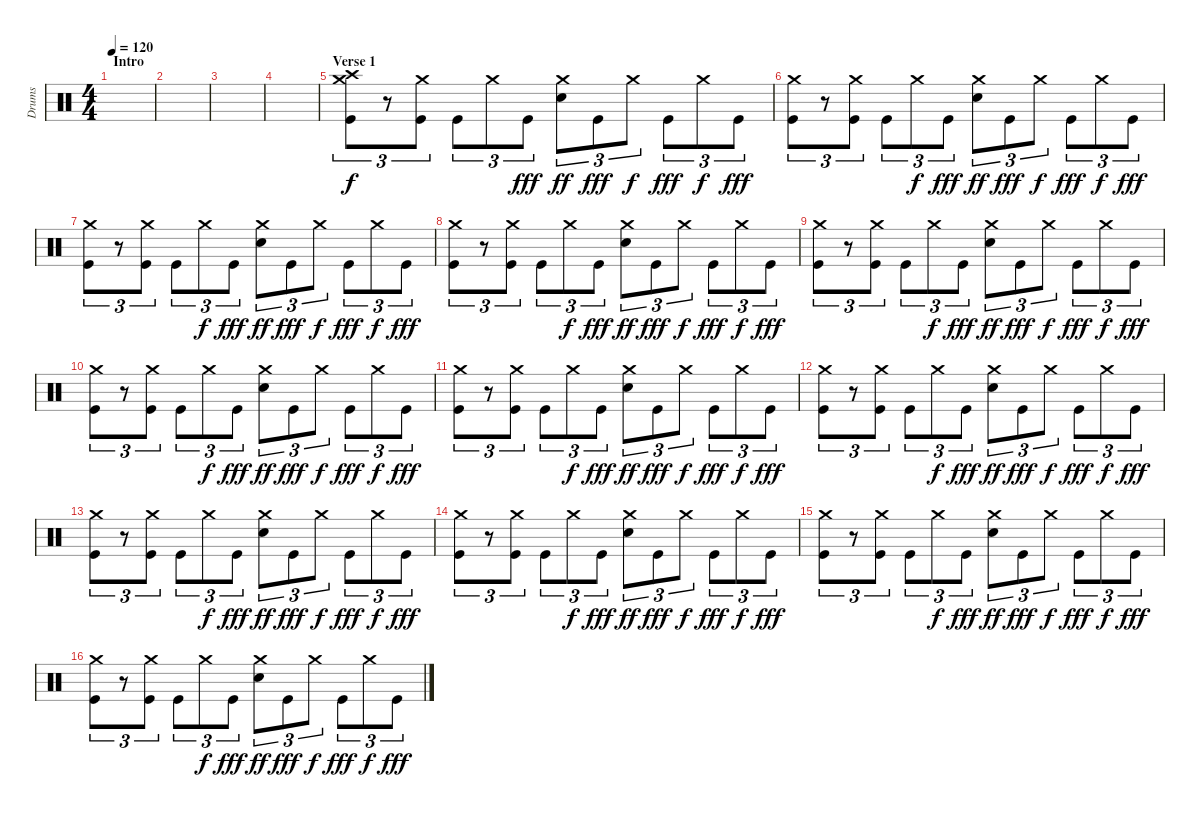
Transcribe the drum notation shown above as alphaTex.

\track ("Drums" "Drums") {instrument percussion}
\staff {score}
\articulation defaults
\ts (4 4)
\section ("" "Intro")
\tempo 120
\clef neutral
\ks c
|
|
|
|
\section ("" "Verse 1")
("Crash high (hit)" "Crash medium (hit)" "Kick (hit)").8{tu (3 2)} r.8{tu (3 2)} ("Crash medium (hit)" "Kick (hit)").8{tu (3 2)} "Kick (hit)".8{tu (3 2)} "Crash medium (hit)".8{tu (3 2) dy f} "Kick (hit)".8{tu (3 2) dy fff} ("Crash medium (hit)" "Snare (hit) 2").8{tu (3 2) dy ff} "Kick (hit)".8{tu (3 2) dy fff} "Crash medium (hit)".8{tu (3 2) dy f} "Kick (hit)".8{tu (3 2) dy fff} "Crash medium (hit)".8{tu (3 2) dy f} "Kick (hit)".8{tu (3 2) dy fff} |
("Crash medium (hit)" "Kick (hit)").8{tu (3 2)} r.8{tu (3 2)} ("Crash medium (hit)" "Kick (hit)").8{tu (3 2)} "Kick (hit)".8{tu (3 2)} "Crash medium (hit)".8{tu (3 2) dy f} "Kick (hit)".8{tu (3 2) dy fff} ("Crash medium (hit)" "Snare (hit) 2").8{tu (3 2) dy ff} "Kick (hit)".8{tu (3 2) dy fff} "Crash medium (hit)".8{tu (3 2) dy f} "Kick (hit)".8{tu (3 2) dy fff} "Crash medium (hit)".8{tu (3 2) dy f} "Kick (hit)".8{tu (3 2) dy fff} |
("Crash medium (hit)" "Kick (hit)").8{tu (3 2)} r.8{tu (3 2)} ("Crash medium (hit)" "Kick (hit)").8{tu (3 2)} "Kick (hit)".8{tu (3 2)} "Crash medium (hit)".8{tu (3 2) dy f} "Kick (hit)".8{tu (3 2) dy fff} ("Crash medium (hit)" "Snare (hit) 2").8{tu (3 2) dy ff} "Kick (hit)".8{tu (3 2) dy fff} "Crash medium (hit)".8{tu (3 2) dy f} "Kick (hit)".8{tu (3 2) dy fff} "Crash medium (hit)".8{tu (3 2) dy f} "Kick (hit)".8{tu (3 2) dy fff} |
("Crash medium (hit)" "Kick (hit)").8{tu (3 2)} r.8{tu (3 2)} ("Crash medium (hit)" "Kick (hit)").8{tu (3 2)} "Kick (hit)".8{tu (3 2)} "Crash medium (hit)".8{tu (3 2) dy f} "Kick (hit)".8{tu (3 2) dy fff} ("Crash medium (hit)" "Snare (hit) 2").8{tu (3 2) dy ff} "Kick (hit)".8{tu (3 2) dy fff} "Crash medium (hit)".8{tu (3 2) dy f} "Kick (hit)".8{tu (3 2) dy fff} "Crash medium (hit)".8{tu (3 2) dy f} "Kick (hit)".8{tu (3 2) dy fff} |
("Crash medium (hit)" "Kick (hit)").8{tu (3 2)} r.8{tu (3 2)} ("Crash medium (hit)" "Kick (hit)").8{tu (3 2)} "Kick (hit)".8{tu (3 2)} "Crash medium (hit)".8{tu (3 2) dy f} "Kick (hit)".8{tu (3 2) dy fff} ("Crash medium (hit)" "Snare (hit) 2").8{tu (3 2) dy ff} "Kick (hit)".8{tu (3 2) dy fff} "Crash medium (hit)".8{tu (3 2) dy f} "Kick (hit)".8{tu (3 2) dy fff} "Crash medium (hit)".8{tu (3 2) dy f} "Kick (hit)".8{tu (3 2) dy fff} |
("Crash medium (hit)" "Kick (hit)").8{tu (3 2)} r.8{tu (3 2)} ("Crash medium (hit)" "Kick (hit)").8{tu (3 2)} "Kick (hit)".8{tu (3 2)} "Crash medium (hit)".8{tu (3 2) dy f} "Kick (hit)".8{tu (3 2) dy fff} ("Crash medium (hit)" "Snare (hit) 2").8{tu (3 2) dy ff} "Kick (hit)".8{tu (3 2) dy fff} "Crash medium (hit)".8{tu (3 2) dy f} "Kick (hit)".8{tu (3 2) dy fff} "Crash medium (hit)".8{tu (3 2) dy f} "Kick (hit)".8{tu (3 2) dy fff} |
("Crash medium (hit)" "Kick (hit)").8{tu (3 2)} r.8{tu (3 2)} ("Crash medium (hit)" "Kick (hit)").8{tu (3 2)} "Kick (hit)".8{tu (3 2)} "Crash medium (hit)".8{tu (3 2) dy f} "Kick (hit)".8{tu (3 2) dy fff} ("Crash medium (hit)" "Snare (hit) 2").8{tu (3 2) dy ff} "Kick (hit)".8{tu (3 2) dy fff} "Crash medium (hit)".8{tu (3 2) dy f} "Kick (hit)".8{tu (3 2) dy fff} "Crash medium (hit)".8{tu (3 2) dy f} "Kick (hit)".8{tu (3 2) dy fff} |
("Crash medium (hit)" "Kick (hit)").8{tu (3 2)} r.8{tu (3 2)} ("Crash medium (hit)" "Kick (hit)").8{tu (3 2)} "Kick (hit)".8{tu (3 2)} "Crash medium (hit)".8{tu (3 2) dy f} "Kick (hit)".8{tu (3 2) dy fff} ("Crash medium (hit)" "Snare (hit) 2").8{tu (3 2) dy ff} "Kick (hit)".8{tu (3 2) dy fff} "Crash medium (hit)".8{tu (3 2) dy f} "Kick (hit)".8{tu (3 2) dy fff} "Crash medium (hit)".8{tu (3 2) dy f} "Kick (hit)".8{tu (3 2) dy fff} |
("Crash medium (hit)" "Kick (hit)").8{tu (3 2)} r.8{tu (3 2)} ("Crash medium (hit)" "Kick (hit)").8{tu (3 2)} "Kick (hit)".8{tu (3 2)} "Crash medium (hit)".8{tu (3 2) dy f} "Kick (hit)".8{tu (3 2) dy fff} ("Crash medium (hit)" "Snare (hit) 2").8{tu (3 2) dy ff} "Kick (hit)".8{tu (3 2) dy fff} "Crash medium (hit)".8{tu (3 2) dy f} "Kick (hit)".8{tu (3 2) dy fff} "Crash medium (hit)".8{tu (3 2) dy f} "Kick (hit)".8{tu (3 2) dy fff} |
("Crash medium (hit)" "Kick (hit)").8{tu (3 2)} r.8{tu (3 2)} ("Crash medium (hit)" "Kick (hit)").8{tu (3 2)} "Kick (hit)".8{tu (3 2)} "Crash medium (hit)".8{tu (3 2) dy f} "Kick (hit)".8{tu (3 2) dy fff} ("Crash medium (hit)" "Snare (hit) 2").8{tu (3 2) dy ff} "Kick (hit)".8{tu (3 2) dy fff} "Crash medium (hit)".8{tu (3 2) dy f} "Kick (hit)".8{tu (3 2) dy fff} "Crash medium (hit)".8{tu (3 2) dy f} "Kick (hit)".8{tu (3 2) dy fff} |
("Crash medium (hit)" "Kick (hit)").8{tu (3 2)} r.8{tu (3 2)} ("Crash medium (hit)" "Kick (hit)").8{tu (3 2)} "Kick (hit)".8{tu (3 2)} "Crash medium (hit)".8{tu (3 2) dy f} "Kick (hit)".8{tu (3 2) dy fff} ("Crash medium (hit)" "Snare (hit) 2").8{tu (3 2) dy ff} "Kick (hit)".8{tu (3 2) dy fff} "Crash medium (hit)".8{tu (3 2) dy f} "Kick (hit)".8{tu (3 2) dy fff} "Crash medium (hit)".8{tu (3 2) dy f} "Kick (hit)".8{tu (3 2) dy fff} |
("Crash medium (hit)" "Kick (hit)").8{tu (3 2)} r.8{tu (3 2)} ("Crash medium (hit)" "Kick (hit)").8{tu (3 2)} "Kick (hit)".8{tu (3 2)} "Crash medium (hit)".8{tu (3 2) dy f} "Kick (hit)".8{tu (3 2) dy fff} ("Crash medium (hit)" "Snare (hit) 2").8{tu (3 2) dy ff} "Kick (hit)".8{tu (3 2) dy fff} "Crash medium (hit)".8{tu (3 2) dy f} "Kick (hit)".8{tu (3 2) dy fff} "Crash medium (hit)".8{tu (3 2) dy f} "Kick (hit)".8{tu (3 2) dy fff}
